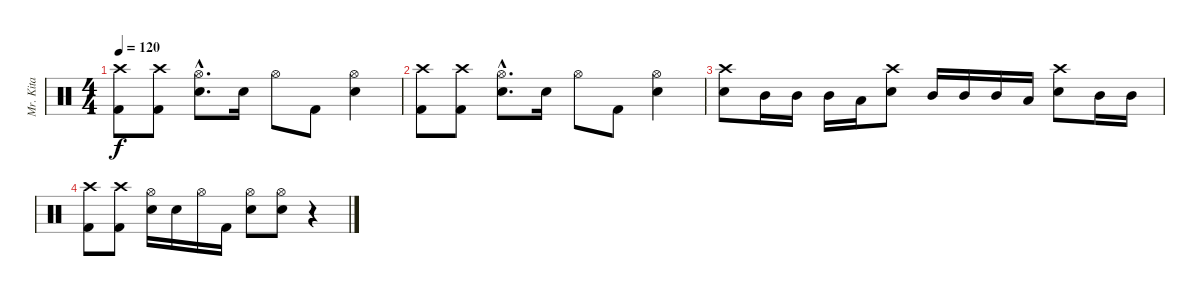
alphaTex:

\track ("Mr. Kita" "Mr. Kita") {instrument percussion}
\staff {score}
\articulation defaults
\ts (4 4)
\tempo 120
\clef neutral
\ks c
("Crash high (hit)" "Kick (hit) 2").8{dy f} ("Crash high (hit)" "Kick (hit) 2").8 ("Hi-Hat (open)"{hac} "Snare (hit) 2"{hac}).8{d} "Snare (hit) 2".16 "Hi-Hat (open)".8 "Kick (hit) 2".8 ("Hi-Hat (open)" "Snare (hit) 2").4 |
("Crash high (hit)" "Kick (hit) 2").8 ("Crash high (hit)" "Kick (hit) 2").8 ("Hi-Hat (open)"{hac} "Snare (hit) 2"{hac}).8{d} "Snare (hit) 2".16 "Hi-Hat (open)".8 "Kick (hit) 2".8 ("Hi-Hat (open)" "Snare (hit) 2").4 |
("Crash high (hit)" "Snare (hit) 2").8 "Mid Tom (hit)".16 "Mid Tom (hit)".16 "Mid Tom (hit)".16 "Low Floor Tom (hit)".16 ("Crash high (hit)" "Snare (hit) 2").8 "Mid Tom (hit)".16 "Mid Tom (hit)".16 "Mid Tom (hit)".16 "Low Floor Tom (hit)".16 ("Crash high (hit)" "Snare (hit) 2").8 "Mid Tom (hit)".16 "Mid Tom (hit)".16 |
("Crash high (hit)" "Kick (hit) 2").8 ("Crash high (hit)" "Kick (hit) 2").8 ("Hi-Hat (open)" "Snare (hit) 2").16 "Snare (hit) 2".16 "Hi-Hat (open)".16 "Kick (hit) 2".16 ("Hi-Hat (open)" "Snare (hit) 2").8 ("Hi-Hat (open)" "Snare (hit) 2").8 r.4
